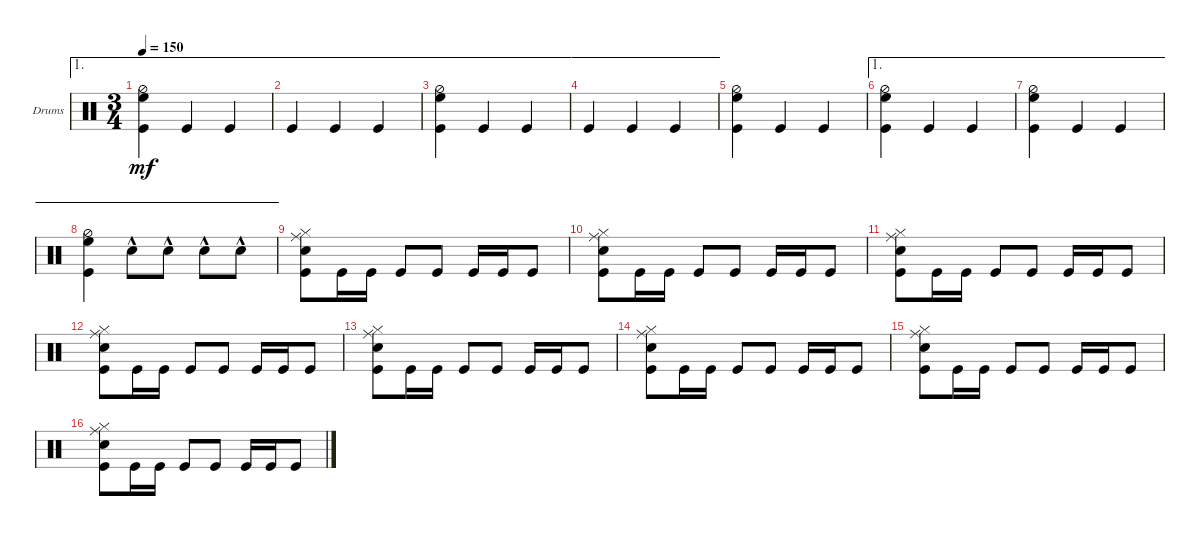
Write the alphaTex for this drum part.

\defaultSystemsLayout 4
\bracketExtendMode groupsimilarinstruments
\firstSystemTrackNameOrientation horizontal
\otherSystemsTrackNameOrientation horizontal
\track ("Drumkit" "Drums") {instrument percussion}
\staff {score}
\articulation defaults
\ae 1
\ts (3 4)
\tempo 150
\clef neutral
\ks c
("Kick (hit)" "High Floor Tom (hit)" "Hi-Hat (half)").4{dy mf} "Kick (hit)".4 "Kick (hit)".4 |
\ae 1 "Kick (hit)".4 "Kick (hit)".4 "Kick (hit)".4
|
\ae 1
("Kick (hit)" "High Floor Tom (hit)" "Hi-Hat (half)").4 "Kick (hit)".4 "Kick (hit)".4 |
\ae 1 "Kick (hit)".4 "Kick (hit)".4 "Kick (hit)".4
|
("Kick (hit)" "High Floor Tom (hit)" "Hi-Hat (half)").4 "Kick (hit)".4 "Kick (hit)".4 |
\ae 1
("Kick (hit)" "High Floor Tom (hit)" "Hi-Hat (half)").4 "Kick (hit)".4 "Kick (hit)".4 |
\ae 1
("Kick (hit)" "High Floor Tom (hit)" "Hi-Hat (half)").4 "Kick (hit)".4 "Kick (hit)".4 |
\ae 1
("Kick (hit)" "High Floor Tom (hit)" "Hi-Hat (half)").4 "Snare (hit) 2"{hac}.8 "Snare (hit) 2"{hac}.8 "Snare (hit) 2"{hac}.8 "Snare (hit) 2"{hac}.8 |
("Kick (hit)" "Snare (hit) 2" "Ride (middle)" "Hi-Hat (closed)").8 "Kick (hit)".16 "Kick (hit)".16 "Kick (hit)".8 "Kick (hit)".8 "Kick (hit)".16 "Kick (hit)".16 "Kick (hit)".8 |
("Kick (hit)" "Snare (hit) 2" "Ride (middle)" "Hi-Hat (closed)").8 "Kick (hit)".16 "Kick (hit)".16 "Kick (hit)".8 "Kick (hit)".8 "Kick (hit)".16 "Kick (hit)".16 "Kick (hit)".8 |
("Kick (hit)" "Snare (hit) 2" "Ride (middle)" "Hi-Hat (closed)").8 "Kick (hit)".16 "Kick (hit)".16 "Kick (hit)".8 "Kick (hit)".8 "Kick (hit)".16 "Kick (hit)".16 "Kick (hit)".8 |
("Kick (hit)" "Snare (hit) 2" "Ride (middle)" "Hi-Hat (closed)").8 "Kick (hit)".16 "Kick (hit)".16 "Kick (hit)".8 "Kick (hit)".8 "Kick (hit)".16 "Kick (hit)".16 "Kick (hit)".8 |
("Kick (hit)" "Snare (hit) 2" "Ride (middle)" "Hi-Hat (closed)").8 "Kick (hit)".16 "Kick (hit)".16 "Kick (hit)".8 "Kick (hit)".8 "Kick (hit)".16 "Kick (hit)".16 "Kick (hit)".8 |
("Kick (hit)" "Snare (hit) 2" "Ride (middle)" "Hi-Hat (closed)").8 "Kick (hit)".16 "Kick (hit)".16 "Kick (hit)".8 "Kick (hit)".8 "Kick (hit)".16 "Kick (hit)".16 "Kick (hit)".8 |
("Kick (hit)" "Snare (hit) 2" "Ride (middle)" "Hi-Hat (closed)").8 "Kick (hit)".16 "Kick (hit)".16 "Kick (hit)".8 "Kick (hit)".8 "Kick (hit)".16 "Kick (hit)".16 "Kick (hit)".8 |
("Kick (hit)" "Snare (hit) 2" "Ride (middle)" "Hi-Hat (closed)").8 "Kick (hit)".16 "Kick (hit)".16 "Kick (hit)".8 "Kick (hit)".8 "Kick (hit)".16 "Kick (hit)".16 "Kick (hit)".8
